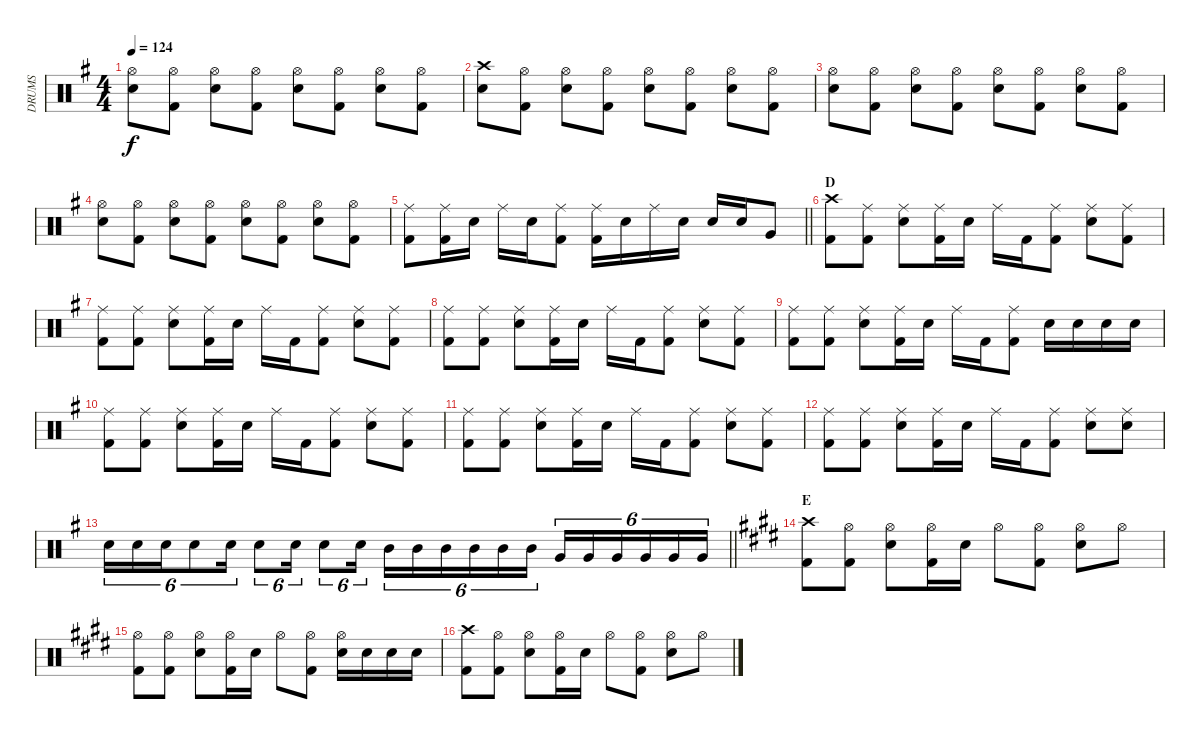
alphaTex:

\track ("DRUMS" "DRUMS") {instrument percussion}
\staff {score}
\articulation defaults
\ts (4 4)
\tempo 124
\clef neutral
\ks g
("Hi-Hat (open)" "Snare (hit) 2").8{dy f} ("Hi-Hat (open)" "Kick (hit) 2").8 ("Hi-Hat (open)" "Snare (hit) 2").8 ("Hi-Hat (open)" "Kick (hit) 2").8 ("Hi-Hat (open)" "Snare (hit) 2").8 ("Hi-Hat (open)" "Kick (hit) 2").8 ("Hi-Hat (open)" "Snare (hit) 2").8 ("Hi-Hat (open)" "Kick (hit) 2").8 |
("Crash high (hit)" "Snare (hit) 2").8 ("Hi-Hat (open)" "Kick (hit) 2").8 ("Hi-Hat (open)" "Snare (hit) 2").8 ("Hi-Hat (open)" "Kick (hit) 2").8 ("Hi-Hat (open)" "Snare (hit) 2").8 ("Hi-Hat (open)" "Kick (hit) 2").8 ("Hi-Hat (open)" "Snare (hit) 2").8 ("Hi-Hat (open)" "Kick (hit) 2").8 |
("Hi-Hat (open)" "Snare (hit) 2").8 ("Hi-Hat (open)" "Kick (hit) 2").8 ("Hi-Hat (open)" "Snare (hit) 2").8 ("Hi-Hat (open)" "Kick (hit) 2").8 ("Hi-Hat (open)" "Snare (hit) 2").8 ("Hi-Hat (open)" "Kick (hit) 2").8 ("Hi-Hat (open)" "Snare (hit) 2").8 ("Hi-Hat (open)" "Kick (hit) 2").8 |
("Hi-Hat (open)" "Snare (hit) 2").8 ("Hi-Hat (open)" "Kick (hit) 2").8 ("Hi-Hat (open)" "Snare (hit) 2").8 ("Hi-Hat (open)" "Kick (hit) 2").8 ("Hi-Hat (open)" "Snare (hit) 2").8 ("Hi-Hat (open)" "Kick (hit) 2").8 ("Hi-Hat (open)" "Snare (hit) 2").8 ("Hi-Hat (open)" "Kick (hit) 2").8 |
\barLineRight lightlight
("Ride (middle)" "Kick (hit) 2").8 ("Ride (middle)" "Kick (hit) 2").16 "Snare (hit) 2".16 "Ride (middle)".16 "Snare (hit) 2".16 ("Ride (middle)" "Kick (hit) 2").8 ("Ride (middle)" "Kick (hit) 2").16 "Snare (hit) 2".16 "Ride (middle)".16 "Snare (hit) 2".16 "Snare (hit) 2".16 "Snare (hit) 2".16 "Very Low Tom (hit)".8 |
\section ("" "D")
("Crash high (hit)" "Kick (hit) 2").8 ("Ride (middle)" "Kick (hit) 2").8 ("Ride (middle)" "Snare (hit) 2").8 ("Ride (middle)" "Kick (hit) 2").16 "Snare (hit) 2".16 "Ride (middle)".16 "Kick (hit) 2".16 ("Ride (middle)" "Kick (hit) 2").8 ("Ride (middle)" "Snare (hit) 2").8 ("Ride (middle)" "Kick (hit) 2").8 |
("Ride (middle)" "Kick (hit) 2").8 ("Ride (middle)" "Kick (hit) 2").8 ("Ride (middle)" "Snare (hit) 2").8 ("Ride (middle)" "Kick (hit) 2").16 "Snare (hit) 2".16 "Ride (middle)".16 "Kick (hit) 2".16 ("Ride (middle)" "Kick (hit) 2").8 ("Ride (middle)" "Snare (hit) 2").8 ("Ride (middle)" "Kick (hit) 2").8 |
("Ride (middle)" "Kick (hit) 2").8 ("Ride (middle)" "Kick (hit) 2").8 ("Ride (middle)" "Snare (hit) 2").8 ("Ride (middle)" "Kick (hit) 2").16 "Snare (hit) 2".16 "Ride (middle)".16 "Kick (hit) 2".16 ("Ride (middle)" "Kick (hit) 2").8 ("Ride (middle)" "Snare (hit) 2").8 ("Ride (middle)" "Kick (hit) 2").8 |
("Ride (middle)" "Kick (hit) 2").8 ("Ride (middle)" "Kick (hit) 2").8 ("Ride (middle)" "Snare (hit) 2").8 ("Ride (middle)" "Kick (hit) 2").16 "Snare (hit) 2".16 "Ride (middle)".16 "Kick (hit) 2".16 ("Ride (middle)" "Kick (hit) 2").8 "Snare (hit) 2".16 "Snare (hit) 2".16 "Snare (hit) 2".16 "Snare (hit) 2".16 |
("Ride (middle)" "Kick (hit) 2").8 ("Ride (middle)" "Kick (hit) 2").8 ("Ride (middle)" "Snare (hit) 2").8 ("Ride (middle)" "Kick (hit) 2").16 "Snare (hit) 2".16 "Ride (middle)".16 "Kick (hit) 2".16 ("Ride (middle)" "Kick (hit) 2").8 ("Ride (middle)" "Snare (hit) 2").8 ("Ride (middle)" "Kick (hit) 2").8 |
("Ride (middle)" "Kick (hit) 2").8 ("Ride (middle)" "Kick (hit) 2").8 ("Ride (middle)" "Snare (hit) 2").8 ("Ride (middle)" "Kick (hit) 2").16 "Snare (hit) 2".16 "Ride (middle)".16 "Kick (hit) 2".16 ("Ride (middle)" "Kick (hit) 2").8 ("Ride (middle)" "Snare (hit) 2").8 ("Ride (middle)" "Kick (hit) 2").8 |
("Ride (middle)" "Kick (hit) 2").8 ("Ride (middle)" "Kick (hit) 2").8 ("Ride (middle)" "Snare (hit) 2").8 ("Ride (middle)" "Kick (hit) 2").16 "Snare (hit) 2".16 "Ride (middle)".16 "Kick (hit) 2".16 ("Ride (middle)" "Kick (hit) 2").8 ("Ride (middle)" "Snare (hit) 2").8 ("Ride (middle)" "Snare (hit) 2").8 |
\barLineRight lightlight "Snare (hit) 2".16{tu (6 4)} "Snare (hit) 2".16{tu (6 4)} "Snare (hit) 2".16{tu (6 4)} "Snare (hit) 2".8{tu (6 4)} "Snare (hit) 2".16{tu (6 4)} "Snare (hit) 2".8{tu (6 4)} "Snare (hit) 2".16{tu (6 4)} "Snare (hit) 2".8{tu (6 4)} "Snare (hit) 2".16{tu (6 4)} "Mid Tom (hit)".16{tu (6 4)} "Mid Tom (hit)".16{tu (6 4)} "Mid Tom (hit)".16{tu (6 4)} "Mid Tom (hit)".16{tu (6 4)} "Mid Tom (hit)".16{tu (6 4)} "Mid Tom (hit)".16{tu (6 4)} "Very Low Tom (hit)".16{tu (6 4)} "Very Low Tom (hit)".16{tu (6 4)} "Very Low Tom (hit)".16{tu (6 4)} "Very Low Tom (hit)".16{tu (6 4)} "Very Low Tom (hit)".16{tu (6 4)} "Very Low Tom (hit)".16{tu (6 4)}
|
\section ("" "E")
\ks e
("Crash high (hit)" "Kick (hit) 2").8 ("Hi-Hat (open)" "Kick (hit) 2").8 ("Hi-Hat (open)" "Snare (hit) 2").8 ("Hi-Hat (open)" "Kick (hit) 2").16 "Snare (hit) 2".16 "Hi-Hat (open)".8 ("Hi-Hat (open)" "Kick (hit) 2").8 ("Hi-Hat (open)" "Snare (hit) 2").8 "Hi-Hat (open)".8 |
("Hi-Hat (open)" "Kick (hit) 2").8 ("Hi-Hat (open)" "Kick (hit) 2").8 ("Hi-Hat (open)" "Snare (hit) 2").8 ("Hi-Hat (open)" "Kick (hit) 2").16 "Snare (hit) 2".16 "Hi-Hat (open)".8 ("Hi-Hat (open)" "Kick (hit) 2").8 ("Hi-Hat (open)" "Snare (hit) 2").16 "Snare (hit) 2".16 "Snare (hit) 2".16 "Snare (hit) 2".16 |
("Crash high (hit)" "Kick (hit) 2").8 ("Hi-Hat (open)" "Kick (hit) 2").8 ("Hi-Hat (open)" "Snare (hit) 2").8 ("Hi-Hat (open)" "Kick (hit) 2").16 "Snare (hit) 2".16 "Hi-Hat (open)".8 ("Hi-Hat (open)" "Kick (hit) 2").8 ("Hi-Hat (open)" "Snare (hit) 2").8 "Hi-Hat (open)".8
